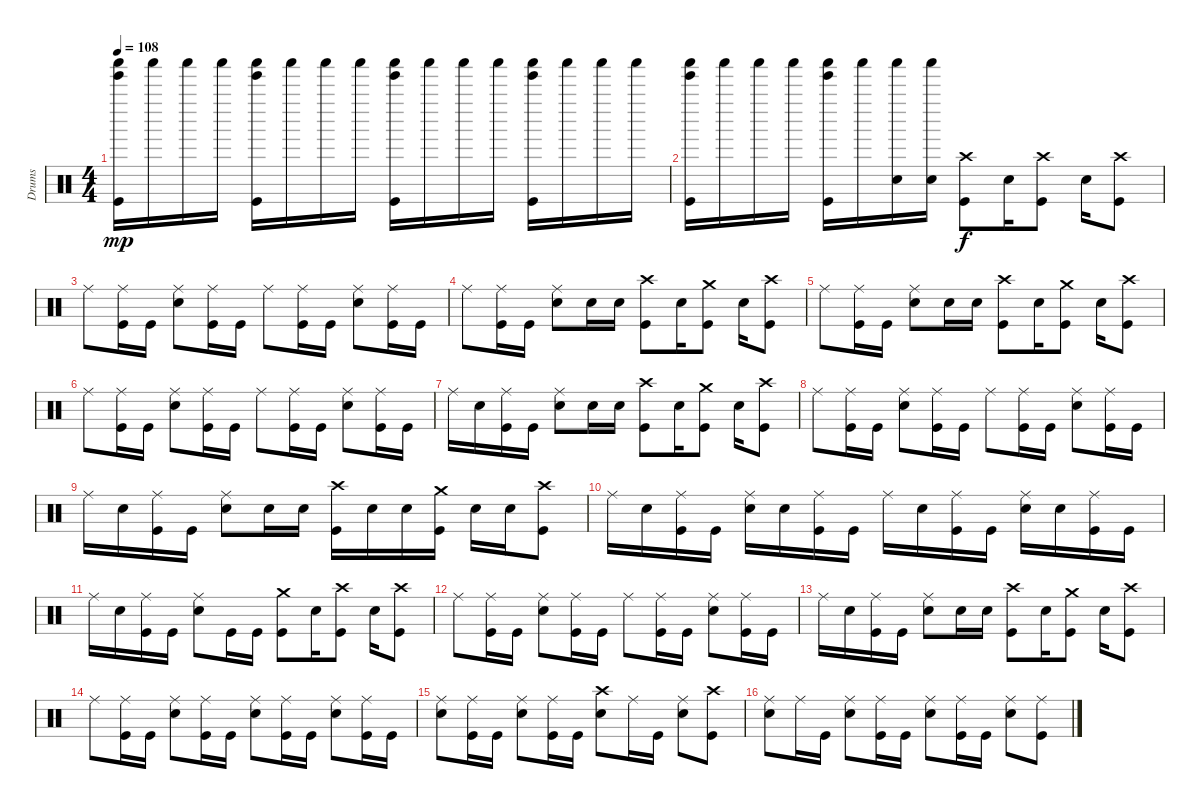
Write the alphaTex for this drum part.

\track ("Drums" "Drums") {instrument percussion}
\staff {score}
\articulation defaults
\ts (4 4)
\tempo 108
\clef neutral
\ks c
("Tinkle Bell (hit)" "Shaker (hit)" "Kick (hit)").16{dy mp} "Shaker (hit)".16 "Shaker (hit)".16 "Shaker (hit)".16 ("Tinkle Bell (hit)" "Shaker (hit)" "Kick (hit)").16 "Shaker (hit)".16 "Shaker (hit)".16 "Shaker (hit)".16 ("Tinkle Bell (hit)" "Shaker (hit)" "Kick (hit)").16 "Shaker (hit)".16 "Shaker (hit)".16 "Shaker (hit)".16 ("Tinkle Bell (hit)" "Shaker (hit)" "Kick (hit)").16 "Shaker (hit)".16 "Shaker (hit)".16 "Shaker (hit)".16 |
("Tinkle Bell (hit)" "Shaker (hit)" "Kick (hit)").16 "Shaker (hit)".16 "Shaker (hit)".16 "Shaker (hit)".16 ("Tinkle Bell (hit)" "Shaker (hit)" "Kick (hit)").16 "Shaker (hit)".16 ("Shaker (hit)" "Snare (hit) 2").16 ("Shaker (hit)" "Snare (hit) 2").16 ("Crash high (hit)" "Kick (hit)").8{dy f} "Electric Snare (hit)".16 ("Crash high (hit)" "Kick (hit)").8 "Electric Snare (hit)".16 ("Crash high (hit)" "Kick (hit)").8 |
"Ride (middle)".8 ("Ride (middle)" "Kick (hit)").16 "Kick (hit)".16 ("Ride (middle)" "Snare (hit) 2").8 ("Ride (middle)" "Kick (hit)").16 "Kick (hit)".16 "Ride (middle)".8 ("Ride (middle)" "Kick (hit)").16 "Kick (hit)".16 ("Ride (middle)" "Snare (hit) 2").8 ("Ride (middle)" "Kick (hit)").16 "Kick (hit)".16 |
"Ride (middle)".8 ("Ride (middle)" "Kick (hit)").16 "Kick (hit)".16 ("Ride (middle)" "Snare (hit) 2").8 "Snare (hit) 2".16 "Snare (hit) 2".16 ("Crash high (hit)" "Kick (hit)").8 "Electric Snare (hit)".16 ("Crash medium (hit)" "Kick (hit)").8 "Electric Snare (hit)".16 ("Crash high (hit)" "Kick (hit)").8 |
"Ride (middle)".8 ("Ride (middle)" "Kick (hit)").16 "Kick (hit)".16 ("Ride (middle)" "Snare (hit) 2").8 "Snare (hit) 2".16 "Snare (hit) 2".16 ("Crash high (hit)" "Kick (hit)").8 "Electric Snare (hit)".16 ("Crash medium (hit)" "Kick (hit)").8 "Electric Snare (hit)".16 ("Crash high (hit)" "Kick (hit)").8 |
"Ride (middle)".8 ("Ride (middle)" "Kick (hit)").16 "Kick (hit)".16 ("Ride (middle)" "Snare (hit) 2").8 ("Ride (middle)" "Kick (hit)").16 "Kick (hit)".16 "Ride (middle)".8 ("Ride (middle)" "Kick (hit)").16 "Kick (hit)".16 ("Ride (middle)" "Snare (hit) 2").8 ("Ride (middle)" "Kick (hit)").16 "Kick (hit)".16 |
"Ride (middle)".16 "Snare (hit) 2".16 ("Ride (middle)" "Kick (hit)").16 "Kick (hit)".16 ("Ride (middle)" "Snare (hit) 2").8 "Snare (hit) 2".16 "Snare (hit) 2".16 ("Crash high (hit)" "Kick (hit)").8 "Electric Snare (hit)".16 ("Crash medium (hit)" "Kick (hit)").8 "Electric Snare (hit)".16 ("Crash high (hit)" "Kick (hit)").8 |
"Ride (middle)".8 ("Ride (middle)" "Kick (hit)").16 "Kick (hit)".16 ("Ride (middle)" "Snare (hit) 2").8 ("Ride (middle)" "Kick (hit)").16 "Kick (hit)".16 "Ride (middle)".8 ("Ride (middle)" "Kick (hit)").16 "Kick (hit)".16 ("Ride (middle)" "Snare (hit) 2").8 ("Ride (middle)" "Kick (hit)").16 "Kick (hit)".16 |
"Ride (middle)".16 "Snare (hit) 2".16 ("Ride (middle)" "Kick (hit)").16 "Kick (hit)".16 ("Ride (middle)" "Snare (hit) 2").8 "Snare (hit) 2".16 "Snare (hit) 2".16 ("Crash high (hit)" "Kick (hit)").16 "Snare (hit) 2".16 "Snare (hit) 2".16 ("Crash medium (hit)" "Kick (hit)").16 "Snare (hit) 2".16 "Snare (hit) 2".16 ("Crash high (hit)" "Kick (hit)").8 |
"Ride (middle)".16 "Snare (hit) 2".16 ("Ride (middle)" "Kick (hit)").16 "Kick (hit)".16 ("Ride (middle)" "Snare (hit) 2").16 "Snare (hit) 2".16 ("Ride (middle)" "Kick (hit)").16 "Kick (hit)".16 "Ride (middle)".16 "Snare (hit) 2".16 ("Ride (middle)" "Kick (hit)").16 "Kick (hit)".16 ("Ride (middle)" "Snare (hit) 2").16 "Snare (hit) 2".16 ("Ride (middle)" "Kick (hit)").16 "Kick (hit)".16 |
"Ride (middle)".16 "Snare (hit) 2".16 ("Ride (middle)" "Kick (hit)").16 "Kick (hit)".16 ("Ride (middle)" "Snare (hit) 2").8 "Kick (hit)".16 "Kick (hit)".16 ("Crash medium (hit)" "Kick (hit)").8 "Electric Snare (hit)".16 ("Crash high (hit)" "Kick (hit)").8 "Electric Snare (hit)".16 ("Crash high (hit)" "Kick (hit)").8 |
"Ride (middle)".8 ("Ride (middle)" "Kick (hit)").16 "Kick (hit)".16 ("Ride (middle)" "Snare (hit) 2").8 ("Ride (middle)" "Kick (hit)").16 "Kick (hit)".16 "Ride (middle)".8 ("Ride (middle)" "Kick (hit)").16 "Kick (hit)".16 ("Ride (middle)" "Snare (hit) 2").8 ("Ride (middle)" "Kick (hit)").16 "Kick (hit)".16 |
"Ride (middle)".16 "Snare (hit) 2".16 ("Ride (middle)" "Kick (hit)").16 "Kick (hit)".16 ("Ride (middle)" "Snare (hit) 2").8 "Snare (hit) 2".16 "Snare (hit) 2".16 ("Crash high (hit)" "Kick (hit)").8 "Electric Snare (hit)".16 ("Crash medium (hit)" "Kick (hit)").8 "Electric Snare (hit)".16 ("Crash high (hit)" "Kick (hit)").8 |
"Ride (middle)".8 ("Ride (middle)" "Kick (hit)").16 "Kick (hit)".16 ("Ride (middle)" "Snare (hit) 2").8 ("Ride (middle)" "Kick (hit)").16 "Kick (hit)".16 ("Ride (middle)" "Snare (hit) 2").8 ("Ride (middle)" "Kick (hit)").16 "Kick (hit)".16 ("Ride (middle)" "Snare (hit) 2").8 ("Ride (middle)" "Kick (hit)").16 "Kick (hit)".16 |
("Ride (middle)" "Snare (hit) 2").8 ("Ride (middle)" "Kick (hit)").16 "Kick (hit)".16 ("Ride (middle)" "Snare (hit) 2").8 ("Ride (middle)" "Kick (hit)").16 "Kick (hit)".16 ("Crash high (hit)" "Snare (hit) 2").8 "Ride (middle)".16 "Kick (hit)".16 ("Ride (middle)" "Snare (hit) 2").8 ("Crash high (hit)" "Kick (hit)").8 |
("Ride (middle)" "Snare (hit) 2").8 "Ride (middle)".16 "Kick (hit)".16 ("Ride (middle)" "Snare (hit) 2").8 ("Ride (middle)" "Kick (hit)").16 "Kick (hit)".16 ("Ride (middle)" "Snare (hit) 2").8 ("Ride (middle)" "Kick (hit)").16 "Kick (hit)".16 ("Ride (middle)" "Snare (hit) 2").8 ("Ride (middle)" "Kick (hit)").8
